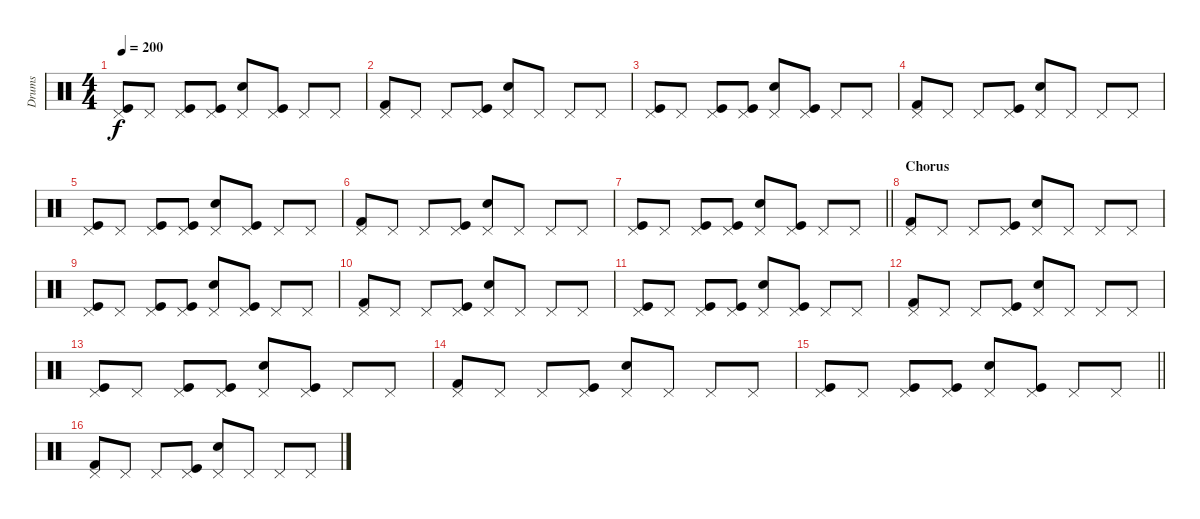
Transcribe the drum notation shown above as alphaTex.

\track ("Drums" "Drums") {instrument percussion}
\staff {score}
\articulation defaults
\ts (4 4)
\tempo 200
\clef neutral
\ks c
("Kick (hit)" "Pedal Hi-Hat (hit)").8{dy f} "Pedal Hi-Hat (hit)".8 ("Kick (hit)" "Pedal Hi-Hat (hit)").8 ("Kick (hit)" "Pedal Hi-Hat (hit)").8 ("Snare (hit) 2" "Pedal Hi-Hat (hit)").8 ("Kick (hit)" "Pedal Hi-Hat (hit)").8 "Pedal Hi-Hat (hit)".8 "Pedal Hi-Hat (hit)".8 |
("Kick (hit) 2" "Pedal Hi-Hat (hit)").8 "Pedal Hi-Hat (hit)".8 "Pedal Hi-Hat (hit)".8 ("Kick (hit)" "Pedal Hi-Hat (hit)").8 ("Snare (hit) 2" "Pedal Hi-Hat (hit)").8 "Pedal Hi-Hat (hit)".8 "Pedal Hi-Hat (hit)".8 "Pedal Hi-Hat (hit)".8 |
("Kick (hit)" "Pedal Hi-Hat (hit)").8 "Pedal Hi-Hat (hit)".8 ("Kick (hit)" "Pedal Hi-Hat (hit)").8 ("Kick (hit)" "Pedal Hi-Hat (hit)").8 ("Snare (hit) 2" "Pedal Hi-Hat (hit)").8 ("Kick (hit)" "Pedal Hi-Hat (hit)").8 "Pedal Hi-Hat (hit)".8 "Pedal Hi-Hat (hit)".8 |
("Kick (hit) 2" "Pedal Hi-Hat (hit)").8 "Pedal Hi-Hat (hit)".8 "Pedal Hi-Hat (hit)".8 ("Kick (hit)" "Pedal Hi-Hat (hit)").8 ("Snare (hit) 2" "Pedal Hi-Hat (hit)").8 "Pedal Hi-Hat (hit)".8 "Pedal Hi-Hat (hit)".8 "Pedal Hi-Hat (hit)".8 |
("Kick (hit)" "Pedal Hi-Hat (hit)").8 "Pedal Hi-Hat (hit)".8 ("Kick (hit)" "Pedal Hi-Hat (hit)").8 ("Kick (hit)" "Pedal Hi-Hat (hit)").8 ("Snare (hit) 2" "Pedal Hi-Hat (hit)").8 ("Kick (hit)" "Pedal Hi-Hat (hit)").8 "Pedal Hi-Hat (hit)".8 "Pedal Hi-Hat (hit)".8 |
("Kick (hit) 2" "Pedal Hi-Hat (hit)").8 "Pedal Hi-Hat (hit)".8 "Pedal Hi-Hat (hit)".8 ("Kick (hit)" "Pedal Hi-Hat (hit)").8 ("Snare (hit) 2" "Pedal Hi-Hat (hit)").8 "Pedal Hi-Hat (hit)".8 "Pedal Hi-Hat (hit)".8 "Pedal Hi-Hat (hit)".8 |
\barLineRight lightlight
("Kick (hit)" "Pedal Hi-Hat (hit)").8 "Pedal Hi-Hat (hit)".8 ("Kick (hit)" "Pedal Hi-Hat (hit)").8 ("Kick (hit)" "Pedal Hi-Hat (hit)").8 ("Snare (hit) 2" "Pedal Hi-Hat (hit)").8 ("Kick (hit)" "Pedal Hi-Hat (hit)").8 "Pedal Hi-Hat (hit)".8 "Pedal Hi-Hat (hit)".8 |
\section ("" "Chorus")
("Kick (hit) 2" "Pedal Hi-Hat (hit)").8 "Pedal Hi-Hat (hit)".8 "Pedal Hi-Hat (hit)".8 ("Kick (hit)" "Pedal Hi-Hat (hit)").8 ("Snare (hit) 2" "Pedal Hi-Hat (hit)").8 "Pedal Hi-Hat (hit)".8 "Pedal Hi-Hat (hit)".8 "Pedal Hi-Hat (hit)".8 |
("Kick (hit)" "Pedal Hi-Hat (hit)").8 "Pedal Hi-Hat (hit)".8 ("Kick (hit)" "Pedal Hi-Hat (hit)").8 ("Kick (hit)" "Pedal Hi-Hat (hit)").8 ("Snare (hit) 2" "Pedal Hi-Hat (hit)").8 ("Kick (hit)" "Pedal Hi-Hat (hit)").8 "Pedal Hi-Hat (hit)".8 "Pedal Hi-Hat (hit)".8 |
("Kick (hit) 2" "Pedal Hi-Hat (hit)").8 "Pedal Hi-Hat (hit)".8 "Pedal Hi-Hat (hit)".8 ("Kick (hit)" "Pedal Hi-Hat (hit)").8 ("Snare (hit) 2" "Pedal Hi-Hat (hit)").8 "Pedal Hi-Hat (hit)".8 "Pedal Hi-Hat (hit)".8 "Pedal Hi-Hat (hit)".8 |
("Kick (hit)" "Pedal Hi-Hat (hit)").8 "Pedal Hi-Hat (hit)".8 ("Kick (hit)" "Pedal Hi-Hat (hit)").8 ("Kick (hit)" "Pedal Hi-Hat (hit)").8 ("Snare (hit) 2" "Pedal Hi-Hat (hit)").8 ("Kick (hit)" "Pedal Hi-Hat (hit)").8 "Pedal Hi-Hat (hit)".8 "Pedal Hi-Hat (hit)".8 |
("Kick (hit) 2" "Pedal Hi-Hat (hit)").8 "Pedal Hi-Hat (hit)".8 "Pedal Hi-Hat (hit)".8 ("Kick (hit)" "Pedal Hi-Hat (hit)").8 ("Snare (hit) 2" "Pedal Hi-Hat (hit)").8 "Pedal Hi-Hat (hit)".8 "Pedal Hi-Hat (hit)".8 "Pedal Hi-Hat (hit)".8 |
("Kick (hit)" "Pedal Hi-Hat (hit)").8 "Pedal Hi-Hat (hit)".8 ("Kick (hit)" "Pedal Hi-Hat (hit)").8 ("Kick (hit)" "Pedal Hi-Hat (hit)").8 ("Snare (hit) 2" "Pedal Hi-Hat (hit)").8 ("Kick (hit)" "Pedal Hi-Hat (hit)").8 "Pedal Hi-Hat (hit)".8 "Pedal Hi-Hat (hit)".8 |
("Kick (hit) 2" "Pedal Hi-Hat (hit)").8 "Pedal Hi-Hat (hit)".8 "Pedal Hi-Hat (hit)".8 ("Kick (hit)" "Pedal Hi-Hat (hit)").8 ("Snare (hit) 2" "Pedal Hi-Hat (hit)").8 "Pedal Hi-Hat (hit)".8 "Pedal Hi-Hat (hit)".8 "Pedal Hi-Hat (hit)".8 |
\barLineRight lightlight
("Kick (hit)" "Pedal Hi-Hat (hit)").8 "Pedal Hi-Hat (hit)".8 ("Kick (hit)" "Pedal Hi-Hat (hit)").8 ("Kick (hit)" "Pedal Hi-Hat (hit)").8 ("Snare (hit) 2" "Pedal Hi-Hat (hit)").8 ("Kick (hit)" "Pedal Hi-Hat (hit)").8 "Pedal Hi-Hat (hit)".8 "Pedal Hi-Hat (hit)".8 |
("Kick (hit) 2" "Pedal Hi-Hat (hit)").8 "Pedal Hi-Hat (hit)".8 "Pedal Hi-Hat (hit)".8 ("Kick (hit)" "Pedal Hi-Hat (hit)").8 ("Snare (hit) 2" "Pedal Hi-Hat (hit)").8 "Pedal Hi-Hat (hit)".8 "Pedal Hi-Hat (hit)".8 "Pedal Hi-Hat (hit)".8
